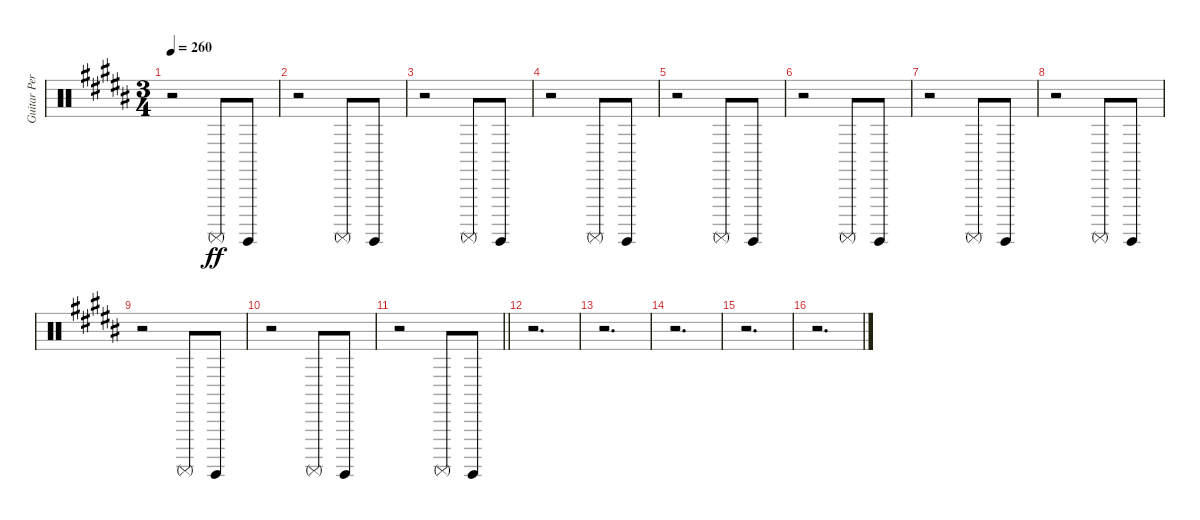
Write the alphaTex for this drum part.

\track ("Guitar Percussion Noises" "Guitar Per") {instrument percussion}
\staff {score}
\articulation defaults
\ts (3 4)
\tempo 260
\clef neutral
\ks b
r.2{dy ff} "Surdo (mute)".8 "Surdo (hit)".8 |
r.2 "Surdo (mute)".8 "Surdo (hit)".8 |
r.2 "Surdo (mute)".8 "Surdo (hit)".8 |
r.2 "Surdo (mute)".8 "Surdo (hit)".8 |
r.2 "Surdo (mute)".8 "Surdo (hit)".8 |
r.2 "Surdo (mute)".8 "Surdo (hit)".8 |
r.2 "Surdo (mute)".8 "Surdo (hit)".8 |
r.2 "Surdo (mute)".8 "Surdo (hit)".8 |
r.2 "Surdo (mute)".8 "Surdo (hit)".8 |
r.2 "Surdo (mute)".8 "Surdo (hit)".8 |
\barLineRight lightlight
r.2 "Surdo (mute)".8 "Surdo (hit)".8 |
r.2{d} |
r.2{d} |
r.2{d} |
r.2{d} |
r.2{d}
